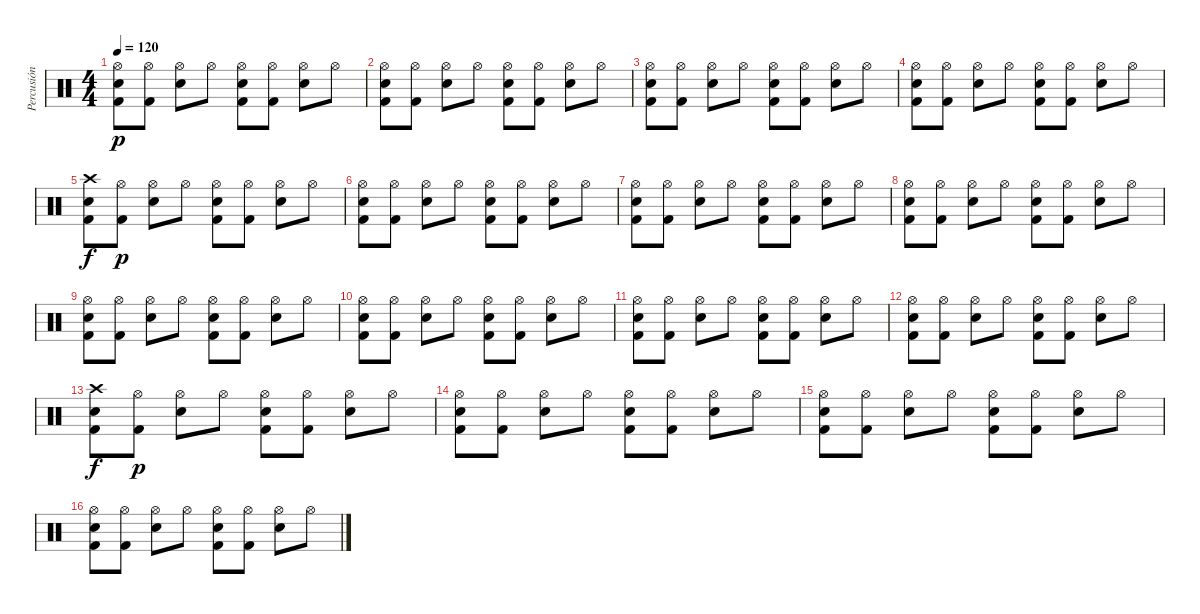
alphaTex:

\track ("Percusión" "Percusión") {instrument percussion}
\staff {score}
\articulation defaults
\ts (4 4)
\tempo 120
\clef neutral
\ks c
("Snare (hit) 2" "Hi-Hat (open)" "Kick (hit) 2").8{dy p} ("Hi-Hat (open)" "Kick (hit) 2").8 ("Snare (hit) 2" "Hi-Hat (open)").8 "Hi-Hat (open)".8 ("Snare (hit) 2" "Hi-Hat (open)" "Kick (hit) 2").8 ("Hi-Hat (open)" "Kick (hit) 2").8 ("Snare (hit) 2" "Hi-Hat (open)").8 "Hi-Hat (open)".8 |
("Snare (hit) 2" "Hi-Hat (open)" "Kick (hit) 2").8 ("Hi-Hat (open)" "Kick (hit) 2").8 ("Snare (hit) 2" "Hi-Hat (open)").8 "Hi-Hat (open)".8 ("Snare (hit) 2" "Hi-Hat (open)" "Kick (hit) 2").8 ("Hi-Hat (open)" "Kick (hit) 2").8 ("Snare (hit) 2" "Hi-Hat (open)").8 "Hi-Hat (open)".8 |
("Snare (hit) 2" "Hi-Hat (open)" "Kick (hit) 2").8 ("Hi-Hat (open)" "Kick (hit) 2").8 ("Snare (hit) 2" "Hi-Hat (open)").8 "Hi-Hat (open)".8 ("Snare (hit) 2" "Hi-Hat (open)" "Kick (hit) 2").8 ("Hi-Hat (open)" "Kick (hit) 2").8 ("Snare (hit) 2" "Hi-Hat (open)").8 "Hi-Hat (open)".8 |
("Snare (hit) 2" "Hi-Hat (open)" "Kick (hit) 2").8 ("Hi-Hat (open)" "Kick (hit) 2").8 ("Snare (hit) 2" "Hi-Hat (open)").8 "Hi-Hat (open)".8 ("Snare (hit) 2" "Hi-Hat (open)" "Kick (hit) 2").8 ("Hi-Hat (open)" "Kick (hit) 2").8 ("Snare (hit) 2" "Hi-Hat (open)").8 "Hi-Hat (open)".8 |
("Snare (hit) 2" "Kick (hit) 2" "Crash high (hit)").8{dy f} ("Hi-Hat (open)" "Kick (hit) 2").8{dy p} ("Snare (hit) 2" "Hi-Hat (open)").8 "Hi-Hat (open)".8 ("Snare (hit) 2" "Hi-Hat (open)" "Kick (hit) 2").8 ("Hi-Hat (open)" "Kick (hit) 2").8 ("Snare (hit) 2" "Hi-Hat (open)").8 "Hi-Hat (open)".8 |
("Snare (hit) 2" "Hi-Hat (open)" "Kick (hit) 2").8 ("Hi-Hat (open)" "Kick (hit) 2").8 ("Snare (hit) 2" "Hi-Hat (open)").8 "Hi-Hat (open)".8 ("Snare (hit) 2" "Hi-Hat (open)" "Kick (hit) 2").8 ("Hi-Hat (open)" "Kick (hit) 2").8 ("Snare (hit) 2" "Hi-Hat (open)").8 "Hi-Hat (open)".8 |
("Snare (hit) 2" "Hi-Hat (open)" "Kick (hit) 2").8 ("Hi-Hat (open)" "Kick (hit) 2").8 ("Snare (hit) 2" "Hi-Hat (open)").8 "Hi-Hat (open)".8 ("Snare (hit) 2" "Hi-Hat (open)" "Kick (hit) 2").8 ("Hi-Hat (open)" "Kick (hit) 2").8 ("Snare (hit) 2" "Hi-Hat (open)").8 "Hi-Hat (open)".8 |
("Snare (hit) 2" "Hi-Hat (open)" "Kick (hit) 2").8 ("Hi-Hat (open)" "Kick (hit) 2").8 ("Snare (hit) 2" "Hi-Hat (open)").8 "Hi-Hat (open)".8 ("Snare (hit) 2" "Hi-Hat (open)" "Kick (hit) 2").8 ("Hi-Hat (open)" "Kick (hit) 2").8 ("Snare (hit) 2" "Hi-Hat (open)").8 "Hi-Hat (open)".8 |
("Snare (hit) 2" "Hi-Hat (open)" "Kick (hit) 2").8 ("Hi-Hat (open)" "Kick (hit) 2").8 ("Snare (hit) 2" "Hi-Hat (open)").8 "Hi-Hat (open)".8 ("Snare (hit) 2" "Hi-Hat (open)" "Kick (hit) 2").8 ("Hi-Hat (open)" "Kick (hit) 2").8 ("Snare (hit) 2" "Hi-Hat (open)").8 "Hi-Hat (open)".8 |
("Snare (hit) 2" "Hi-Hat (open)" "Kick (hit) 2").8 ("Hi-Hat (open)" "Kick (hit) 2").8 ("Snare (hit) 2" "Hi-Hat (open)").8 "Hi-Hat (open)".8 ("Snare (hit) 2" "Hi-Hat (open)" "Kick (hit) 2").8 ("Hi-Hat (open)" "Kick (hit) 2").8 ("Snare (hit) 2" "Hi-Hat (open)").8 "Hi-Hat (open)".8 |
("Snare (hit) 2" "Hi-Hat (open)" "Kick (hit) 2").8 ("Hi-Hat (open)" "Kick (hit) 2").8 ("Snare (hit) 2" "Hi-Hat (open)").8 "Hi-Hat (open)".8 ("Snare (hit) 2" "Hi-Hat (open)" "Kick (hit) 2").8 ("Hi-Hat (open)" "Kick (hit) 2").8 ("Snare (hit) 2" "Hi-Hat (open)").8 "Hi-Hat (open)".8 |
("Snare (hit) 2" "Hi-Hat (open)" "Kick (hit) 2").8 ("Hi-Hat (open)" "Kick (hit) 2").8 ("Snare (hit) 2" "Hi-Hat (open)").8 "Hi-Hat (open)".8 ("Snare (hit) 2" "Hi-Hat (open)" "Kick (hit) 2").8 ("Hi-Hat (open)" "Kick (hit) 2").8 ("Snare (hit) 2" "Hi-Hat (open)").8 "Hi-Hat (open)".8 |
("Snare (hit) 2" "Kick (hit) 2" "Crash high (hit)").8{dy f} ("Hi-Hat (open)" "Kick (hit) 2").8{dy p} ("Snare (hit) 2" "Hi-Hat (open)").8 "Hi-Hat (open)".8 ("Snare (hit) 2" "Hi-Hat (open)" "Kick (hit) 2").8 ("Hi-Hat (open)" "Kick (hit) 2").8 ("Snare (hit) 2" "Hi-Hat (open)").8 "Hi-Hat (open)".8 |
("Snare (hit) 2" "Hi-Hat (open)" "Kick (hit) 2").8 ("Hi-Hat (open)" "Kick (hit) 2").8 ("Snare (hit) 2" "Hi-Hat (open)").8 "Hi-Hat (open)".8 ("Snare (hit) 2" "Hi-Hat (open)" "Kick (hit) 2").8 ("Hi-Hat (open)" "Kick (hit) 2").8 ("Snare (hit) 2" "Hi-Hat (open)").8 "Hi-Hat (open)".8 |
("Snare (hit) 2" "Hi-Hat (open)" "Kick (hit) 2").8 ("Hi-Hat (open)" "Kick (hit) 2").8 ("Snare (hit) 2" "Hi-Hat (open)").8 "Hi-Hat (open)".8 ("Snare (hit) 2" "Hi-Hat (open)" "Kick (hit) 2").8 ("Hi-Hat (open)" "Kick (hit) 2").8 ("Snare (hit) 2" "Hi-Hat (open)").8 "Hi-Hat (open)".8 |
("Snare (hit) 2" "Hi-Hat (open)" "Kick (hit) 2").8 ("Hi-Hat (open)" "Kick (hit) 2").8 ("Snare (hit) 2" "Hi-Hat (open)").8 "Hi-Hat (open)".8 ("Snare (hit) 2" "Hi-Hat (open)" "Kick (hit) 2").8 ("Hi-Hat (open)" "Kick (hit) 2").8 ("Snare (hit) 2" "Hi-Hat (open)").8 "Hi-Hat (open)".8
